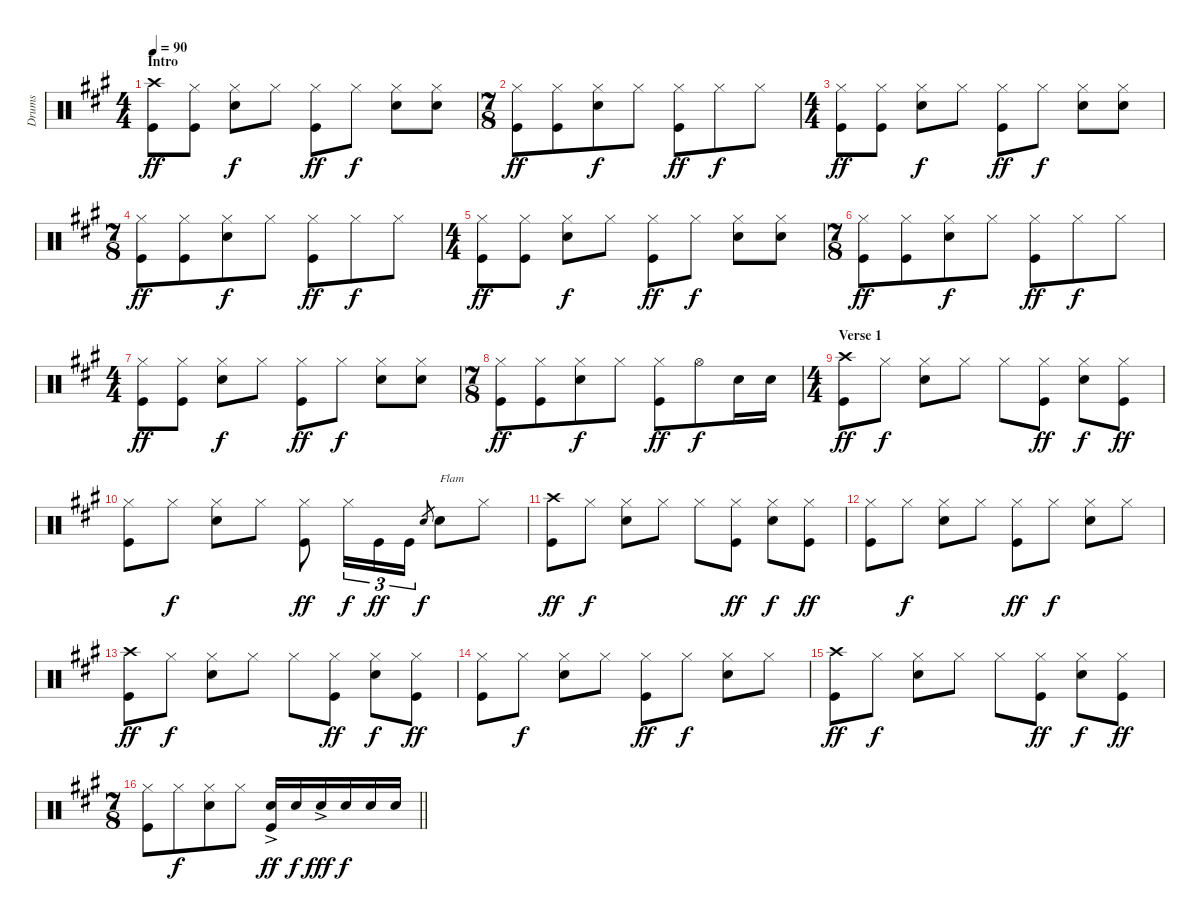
\track ("Drums" "Drums") {instrument percussion}
\staff {score}
\articulation defaults
\ts (4 4)
\section ("" "Intro")
\tempo 90
\clef neutral
\ks a
("Crash high (hit)" "Kick (hit)").8{dy ff} ("Hi-Hat (closed)" "Kick (hit)").8 ("Hi-Hat (closed)" "Snare (hit) 2").8{dy f} "Hi-Hat (closed)".8 ("Hi-Hat (closed)" "Kick (hit)").8{dy ff} "Hi-Hat (closed)".8{dy f} ("Hi-Hat (closed)" "Snare (hit) 2").8 ("Hi-Hat (closed)" "Snare (hit) 2").8 |
\ts (7 8)
("Hi-Hat (closed)" "Kick (hit)").8{dy ff} ("Hi-Hat (closed)" "Kick (hit)").8 ("Hi-Hat (closed)" "Snare (hit) 2").8{dy f} "Hi-Hat (closed)".8 ("Hi-Hat (closed)" "Kick (hit)").8{dy ff} "Hi-Hat (closed)".8{dy f} "Hi-Hat (closed)".8 |
\ts (4 4)
("Hi-Hat (closed)" "Kick (hit)").8{dy ff} ("Hi-Hat (closed)" "Kick (hit)").8 ("Hi-Hat (closed)" "Snare (hit) 2").8{dy f} "Hi-Hat (closed)".8 ("Hi-Hat (closed)" "Kick (hit)").8{dy ff} "Hi-Hat (closed)".8{dy f} ("Hi-Hat (closed)" "Snare (hit) 2").8 ("Hi-Hat (closed)" "Snare (hit) 2").8 |
\ts (7 8)
("Hi-Hat (closed)" "Kick (hit)").8{dy ff} ("Hi-Hat (closed)" "Kick (hit)").8 ("Hi-Hat (closed)" "Snare (hit) 2").8{dy f} "Hi-Hat (closed)".8 ("Hi-Hat (closed)" "Kick (hit)").8{dy ff} "Hi-Hat (closed)".8{dy f} "Hi-Hat (closed)".8 |
\ts (4 4)
("Hi-Hat (closed)" "Kick (hit)").8{dy ff} ("Hi-Hat (closed)" "Kick (hit)").8 ("Hi-Hat (closed)" "Snare (hit) 2").8{dy f} "Hi-Hat (closed)".8 ("Hi-Hat (closed)" "Kick (hit)").8{dy ff} "Hi-Hat (closed)".8{dy f} ("Hi-Hat (closed)" "Snare (hit) 2").8 ("Hi-Hat (closed)" "Snare (hit) 2").8 |
\ts (7 8)
("Hi-Hat (closed)" "Kick (hit)").8{dy ff} ("Hi-Hat (closed)" "Kick (hit)").8 ("Hi-Hat (closed)" "Snare (hit) 2").8{dy f} "Hi-Hat (closed)".8 ("Hi-Hat (closed)" "Kick (hit)").8{dy ff} "Hi-Hat (closed)".8{dy f} "Hi-Hat (closed)".8 |
\ts (4 4)
("Hi-Hat (closed)" "Kick (hit)").8{dy ff} ("Hi-Hat (closed)" "Kick (hit)").8 ("Hi-Hat (closed)" "Snare (hit) 2").8{dy f} "Hi-Hat (closed)".8 ("Hi-Hat (closed)" "Kick (hit)").8{dy ff} "Hi-Hat (closed)".8{dy f} ("Hi-Hat (closed)" "Snare (hit) 2").8 ("Hi-Hat (closed)" "Snare (hit) 2").8 |
\ts (7 8)
("Hi-Hat (closed)" "Kick (hit)").8{dy ff} ("Hi-Hat (closed)" "Kick (hit)").8 ("Hi-Hat (closed)" "Snare (hit) 2").8{dy f} "Hi-Hat (closed)".8 ("Hi-Hat (closed)" "Kick (hit)").8{dy ff} "Hi-Hat (open)".8{dy f} "Snare (hit) 2".16 "Snare (hit) 2".16 |
\ts (4 4)
\section ("" "Verse 1")
("Crash high (hit)" "Kick (hit)").8{dy ff} "Hi-Hat (closed)".8{dy f} ("Hi-Hat (closed)" "Snare (hit) 2").8 "Hi-Hat (closed)".8 "Hi-Hat (closed)".8 ("Hi-Hat (closed)" "Kick (hit)").8{dy ff} ("Hi-Hat (closed)" "Snare (hit) 2").8{dy f} ("Hi-Hat (closed)" "Kick (hit)").8{dy ff} |
("Hi-Hat (closed)" "Kick (hit)").8 "Hi-Hat (closed)".8{dy f} ("Hi-Hat (closed)" "Snare (hit) 2").8 "Hi-Hat (closed)".8 ("Hi-Hat (closed)" "Kick (hit)").8{dy ff} "Hi-Hat (closed)".16{tu (3 2) dy f} "Kick (hit)".16{tu (3 2) dy ff} "Kick (hit)".16{tu (3 2)} "Snare (hit) 2".8{gr dy f} "Snare (hit) 2".8{txt "Flam"} "Hi-Hat (closed)".8 |
("Crash high (hit)" "Kick (hit)").8{dy ff} "Hi-Hat (closed)".8{dy f} ("Hi-Hat (closed)" "Snare (hit) 2").8 "Hi-Hat (closed)".8 "Hi-Hat (closed)".8 ("Hi-Hat (closed)" "Kick (hit)").8{dy ff} ("Hi-Hat (closed)" "Snare (hit) 2").8{dy f} ("Hi-Hat (closed)" "Kick (hit)").8{dy ff} |
("Hi-Hat (closed)" "Kick (hit)").8 "Hi-Hat (closed)".8{dy f} ("Hi-Hat (closed)" "Snare (hit) 2").8 "Hi-Hat (closed)".8 ("Hi-Hat (closed)" "Kick (hit)").8{dy ff} "Hi-Hat (closed)".8{dy f} ("Hi-Hat (closed)" "Snare (hit) 2").8 "Hi-Hat (closed)".8 |
("Crash high (hit)" "Kick (hit)").8{dy ff} "Hi-Hat (closed)".8{dy f} ("Hi-Hat (closed)" "Snare (hit) 2").8 "Hi-Hat (closed)".8 "Hi-Hat (closed)".8 ("Hi-Hat (closed)" "Kick (hit)").8{dy ff} ("Hi-Hat (closed)" "Snare (hit) 2").8{dy f} ("Hi-Hat (closed)" "Kick (hit)").8{dy ff} |
("Hi-Hat (closed)" "Kick (hit)").8 "Hi-Hat (closed)".8{dy f} ("Hi-Hat (closed)" "Snare (hit) 2").8 "Hi-Hat (closed)".8 ("Hi-Hat (closed)" "Kick (hit)").8{dy ff} "Hi-Hat (closed)".8{dy f} ("Hi-Hat (closed)" "Snare (hit) 2").8 "Hi-Hat (closed)".8 |
("Crash high (hit)" "Kick (hit)").8{dy ff} "Hi-Hat (closed)".8{dy f} ("Hi-Hat (closed)" "Snare (hit) 2").8 "Hi-Hat (closed)".8 "Hi-Hat (closed)".8 ("Hi-Hat (closed)" "Kick (hit)").8{dy ff} ("Hi-Hat (closed)" "Snare (hit) 2").8{dy f} ("Hi-Hat (closed)" "Kick (hit)").8{dy ff} |
\ts (7 8)
\barLineRight lightlight
("Hi-Hat (closed)" "Kick (hit)").8 "Hi-Hat (closed)".8{dy f} ("Hi-Hat (closed)" "Snare (hit) 2").8 "Hi-Hat (closed)".8 ("Snare (hit) 2"{ac} "Kick (hit)").16{dy ff} "Snare (hit) 2".16{dy f} "Snare (hit) 2"{ac}.16{dy fff} "Snare (hit) 2".16{dy f} "Snare (hit) 2".16 "Snare (hit) 2".16
